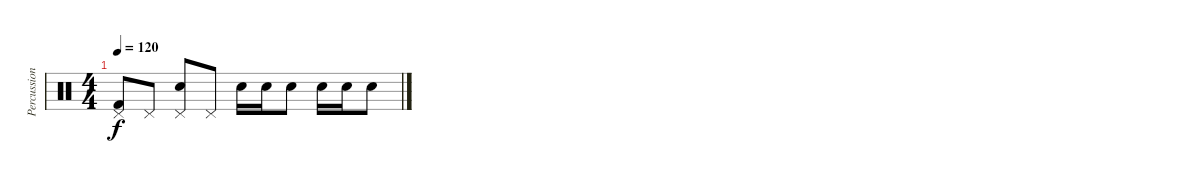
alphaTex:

\track ("Percussions" "Percussion") {instrument percussion}
\staff {score}
\articulation defaults
\ts (4 4)
\tempo 120
\clef neutral
\ks c
("Kick (hit) 2" "Pedal Hi-Hat (hit)").8{dy f} "Pedal Hi-Hat (hit)".8 ("Electric Snare (hit)" "Pedal Hi-Hat (hit)").8 "Pedal Hi-Hat (hit)".8 "Electric Snare (hit)".16 "Electric Snare (hit)".16 "Electric Snare (hit)".8 "Electric Snare (hit)".16 "Electric Snare (hit)".16 "Electric Snare (hit)".8
